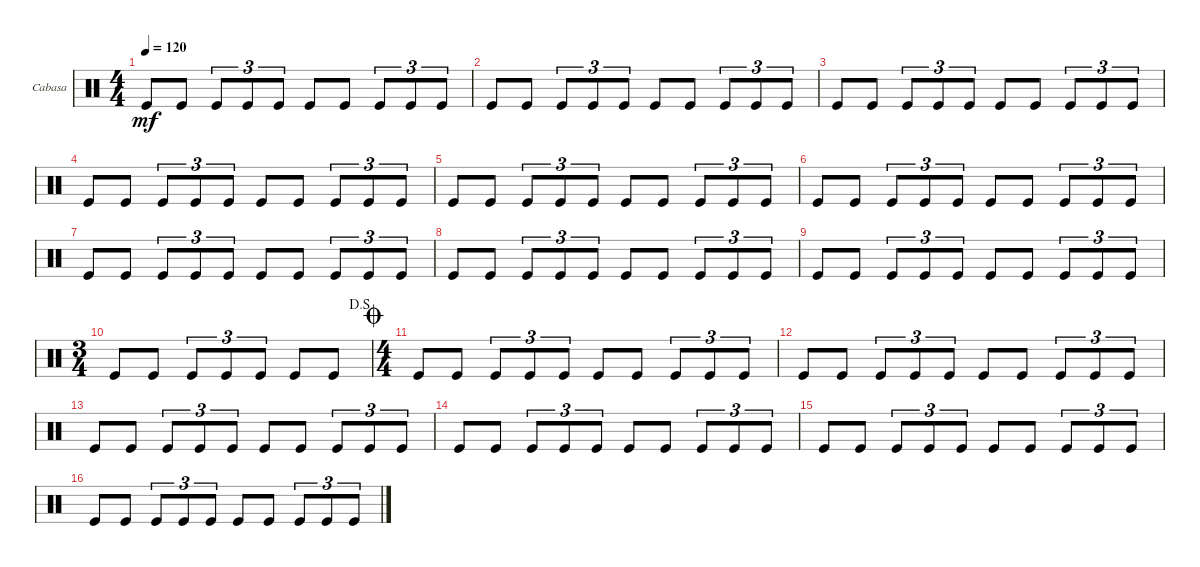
\bracketExtendMode groupsimilarinstruments
\firstSystemTrackNameOrientation horizontal
\otherSystemsTrackNameOrientation horizontal
\track ("Cabasa" "Cabasa") {instrument percussion}
\staff {score}
\articulation defaults
\ts (4 4)
\tempo 120
\clef neutral
\ks c "Kick (hit)".8{dy mf} "Kick (hit)".8 "Kick (hit)".8{tu (3 2)} "Kick (hit)".8{tu (3 2)} "Kick (hit)".8{tu (3 2)} "Kick (hit)".8 "Kick (hit)".8 "Kick (hit)".8{tu (3 2)} "Kick (hit)".8{tu (3 2)} "Kick (hit)".8{tu (3 2)}
|
"Kick (hit)".8 "Kick (hit)".8 "Kick (hit)".8{tu (3 2)} "Kick (hit)".8{tu (3 2)} "Kick (hit)".8{tu (3 2)} "Kick (hit)".8 "Kick (hit)".8 "Kick (hit)".8{tu (3 2)} "Kick (hit)".8{tu (3 2)} "Kick (hit)".8{tu (3 2)} |
"Kick (hit)".8 "Kick (hit)".8 "Kick (hit)".8{tu (3 2)} "Kick (hit)".8{tu (3 2)} "Kick (hit)".8{tu (3 2)} "Kick (hit)".8 "Kick (hit)".8 "Kick (hit)".8{tu (3 2)} "Kick (hit)".8{tu (3 2)} "Kick (hit)".8{tu (3 2)} |
"Kick (hit)".8 "Kick (hit)".8 "Kick (hit)".8{tu (3 2)} "Kick (hit)".8{tu (3 2)} "Kick (hit)".8{tu (3 2)} "Kick (hit)".8 "Kick (hit)".8 "Kick (hit)".8{tu (3 2)} "Kick (hit)".8{tu (3 2)} "Kick (hit)".8{tu (3 2)} |
"Kick (hit)".8 "Kick (hit)".8 "Kick (hit)".8{tu (3 2)} "Kick (hit)".8{tu (3 2)} "Kick (hit)".8{tu (3 2)} "Kick (hit)".8 "Kick (hit)".8 "Kick (hit)".8{tu (3 2)} "Kick (hit)".8{tu (3 2)} "Kick (hit)".8{tu (3 2)} |
"Kick (hit)".8 "Kick (hit)".8 "Kick (hit)".8{tu (3 2)} "Kick (hit)".8{tu (3 2)} "Kick (hit)".8{tu (3 2)} "Kick (hit)".8 "Kick (hit)".8 "Kick (hit)".8{tu (3 2)} "Kick (hit)".8{tu (3 2)} "Kick (hit)".8{tu (3 2)} |
"Kick (hit)".8 "Kick (hit)".8 "Kick (hit)".8{tu (3 2)} "Kick (hit)".8{tu (3 2)} "Kick (hit)".8{tu (3 2)} "Kick (hit)".8 "Kick (hit)".8 "Kick (hit)".8{tu (3 2)} "Kick (hit)".8{tu (3 2)} "Kick (hit)".8{tu (3 2)} |
"Kick (hit)".8 "Kick (hit)".8 "Kick (hit)".8{tu (3 2)} "Kick (hit)".8{tu (3 2)} "Kick (hit)".8{tu (3 2)} "Kick (hit)".8 "Kick (hit)".8 "Kick (hit)".8{tu (3 2)} "Kick (hit)".8{tu (3 2)} "Kick (hit)".8{tu (3 2)} |
"Kick (hit)".8 "Kick (hit)".8 "Kick (hit)".8{tu (3 2)} "Kick (hit)".8{tu (3 2)} "Kick (hit)".8{tu (3 2)} "Kick (hit)".8 "Kick (hit)".8 "Kick (hit)".8{tu (3 2)} "Kick (hit)".8{tu (3 2)} "Kick (hit)".8{tu (3 2)} |
\ts (3 4)
\jump dalsegno "Kick (hit)".8 "Kick (hit)".8 "Kick (hit)".8{tu (3 2)} "Kick (hit)".8{tu (3 2)} "Kick (hit)".8{tu (3 2)} "Kick (hit)".8 "Kick (hit)".8
|
\ts (4 4)
\jump coda "Kick (hit)".8 "Kick (hit)".8 "Kick (hit)".8{tu (3 2)} "Kick (hit)".8{tu (3 2)} "Kick (hit)".8{tu (3 2)} "Kick (hit)".8 "Kick (hit)".8 "Kick (hit)".8{tu (3 2)} "Kick (hit)".8{tu (3 2)} "Kick (hit)".8{tu (3 2)}
|
"Kick (hit)".8 "Kick (hit)".8 "Kick (hit)".8{tu (3 2)} "Kick (hit)".8{tu (3 2)} "Kick (hit)".8{tu (3 2)} "Kick (hit)".8 "Kick (hit)".8 "Kick (hit)".8{tu (3 2)} "Kick (hit)".8{tu (3 2)} "Kick (hit)".8{tu (3 2)} |
"Kick (hit)".8 "Kick (hit)".8 "Kick (hit)".8{tu (3 2)} "Kick (hit)".8{tu (3 2)} "Kick (hit)".8{tu (3 2)} "Kick (hit)".8 "Kick (hit)".8 "Kick (hit)".8{tu (3 2)} "Kick (hit)".8{tu (3 2)} "Kick (hit)".8{tu (3 2)} |
"Kick (hit)".8 "Kick (hit)".8 "Kick (hit)".8{tu (3 2)} "Kick (hit)".8{tu (3 2)} "Kick (hit)".8{tu (3 2)} "Kick (hit)".8 "Kick (hit)".8 "Kick (hit)".8{tu (3 2)} "Kick (hit)".8{tu (3 2)} "Kick (hit)".8{tu (3 2)} |
"Kick (hit)".8 "Kick (hit)".8 "Kick (hit)".8{tu (3 2)} "Kick (hit)".8{tu (3 2)} "Kick (hit)".8{tu (3 2)} "Kick (hit)".8 "Kick (hit)".8 "Kick (hit)".8{tu (3 2)} "Kick (hit)".8{tu (3 2)} "Kick (hit)".8{tu (3 2)} |
"Kick (hit)".8 "Kick (hit)".8 "Kick (hit)".8{tu (3 2)} "Kick (hit)".8{tu (3 2)} "Kick (hit)".8{tu (3 2)} "Kick (hit)".8 "Kick (hit)".8 "Kick (hit)".8{tu (3 2)} "Kick (hit)".8{tu (3 2)} "Kick (hit)".8{tu (3 2)}
